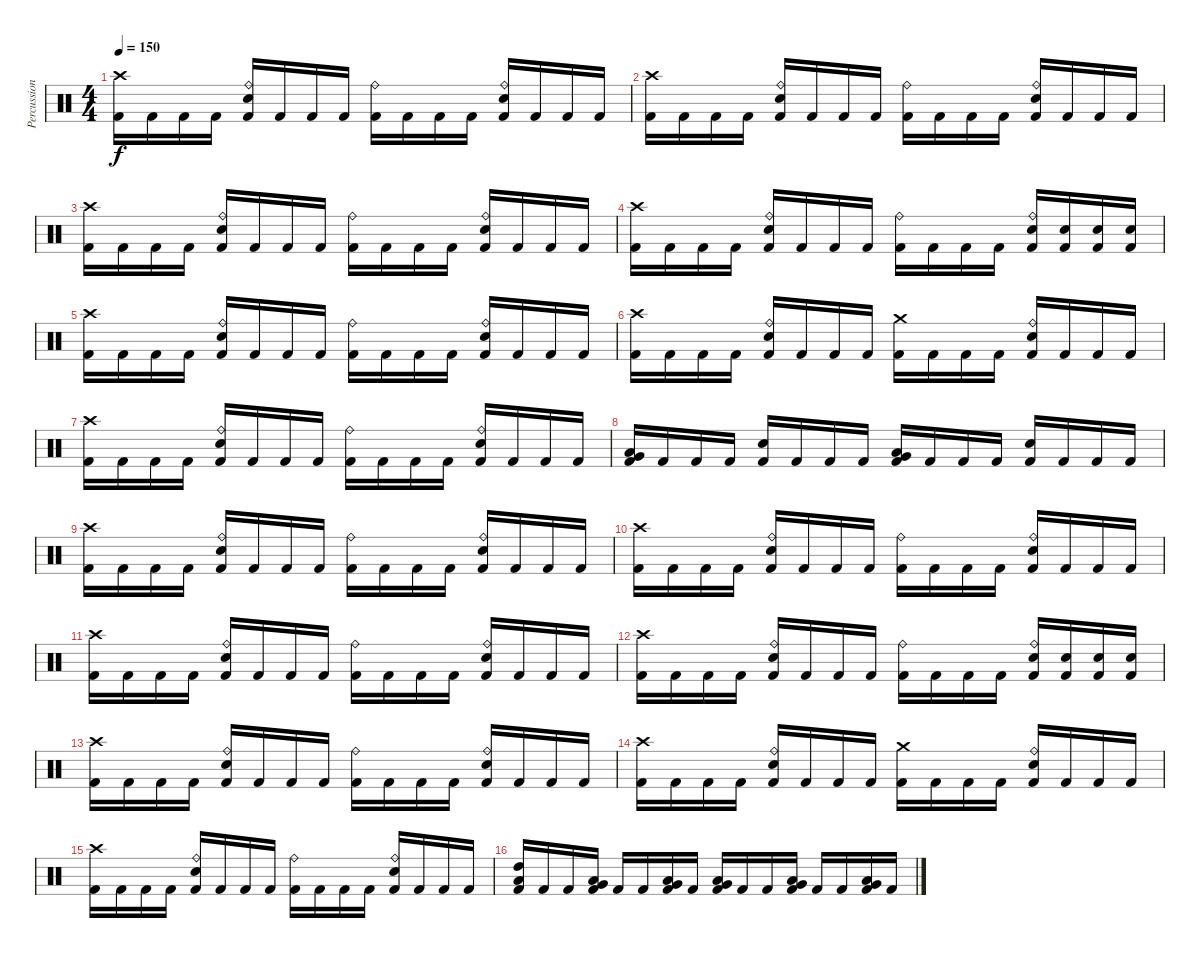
\track ("Percussion" "Percussion") {instrument percussion}
\staff {score}
\articulation defaults
\ts (4 4)
\tempo 150
\clef neutral
\ks c
("Crash high (hit)" "Kick (hit) 2").16{dy f} "Kick (hit) 2".16 "Kick (hit) 2".16 "Kick (hit) 2".16 ("Ride (bell)" "Snare (hit) 2" "Kick (hit) 2").16 "Kick (hit) 2".16 "Kick (hit) 2".16 "Kick (hit) 2".16 ("Ride (bell)" "Kick (hit) 2").16 "Kick (hit) 2".16 "Kick (hit) 2".16 "Kick (hit) 2".16 ("Ride (bell)" "Snare (hit) 2" "Kick (hit) 2").16 "Kick (hit) 2".16 "Kick (hit) 2".16 "Kick (hit) 2".16 |
("Crash high (hit)" "Kick (hit) 2").16 "Kick (hit) 2".16 "Kick (hit) 2".16 "Kick (hit) 2".16 ("Ride (bell)" "Snare (hit) 2" "Kick (hit) 2").16 "Kick (hit) 2".16 "Kick (hit) 2".16 "Kick (hit) 2".16 ("Ride (bell)" "Kick (hit) 2").16 "Kick (hit) 2".16 "Kick (hit) 2".16 "Kick (hit) 2".16 ("Ride (bell)" "Snare (hit) 2" "Kick (hit) 2").16 "Kick (hit) 2".16 "Kick (hit) 2".16 "Kick (hit) 2".16 |
("Crash high (hit)" "Kick (hit) 2").16 "Kick (hit) 2".16 "Kick (hit) 2".16 "Kick (hit) 2".16 ("Ride (bell)" "Snare (hit) 2" "Kick (hit) 2").16 "Kick (hit) 2".16 "Kick (hit) 2".16 "Kick (hit) 2".16 ("Ride (bell)" "Kick (hit) 2").16 "Kick (hit) 2".16 "Kick (hit) 2".16 "Kick (hit) 2".16 ("Ride (bell)" "Snare (hit) 2" "Kick (hit) 2").16 "Kick (hit) 2".16 "Kick (hit) 2".16 "Kick (hit) 2".16 |
("Crash high (hit)" "Kick (hit) 2").16 "Kick (hit) 2".16 "Kick (hit) 2".16 "Kick (hit) 2".16 ("Ride (bell)" "Snare (hit) 2" "Kick (hit) 2").16 "Kick (hit) 2".16 "Kick (hit) 2".16 "Kick (hit) 2".16 ("Ride (bell)" "Kick (hit) 2").16 "Kick (hit) 2".16 "Kick (hit) 2".16 "Kick (hit) 2".16 ("Ride (bell)" "Snare (hit) 2" "Kick (hit) 2").16 ("Snare (hit) 2" "Kick (hit) 2").16 ("Snare (hit) 2" "Kick (hit) 2").16 ("Snare (hit) 2" "Kick (hit) 2").16 |
("Crash high (hit)" "Kick (hit) 2").16 "Kick (hit) 2".16 "Kick (hit) 2".16 "Kick (hit) 2".16 ("Ride (bell)" "Snare (hit) 2" "Kick (hit) 2").16 "Kick (hit) 2".16 "Kick (hit) 2".16 "Kick (hit) 2".16 ("Ride (bell)" "Kick (hit) 2").16 "Kick (hit) 2".16 "Kick (hit) 2".16 "Kick (hit) 2".16 ("Ride (bell)" "Snare (hit) 2" "Kick (hit) 2").16 "Kick (hit) 2".16 "Kick (hit) 2".16 "Kick (hit) 2".16 |
("Crash high (hit)" "Kick (hit) 2").16 "Kick (hit) 2".16 "Kick (hit) 2".16 "Kick (hit) 2".16 ("Ride (bell)" "Snare (hit) 2" "Kick (hit) 2").16 "Kick (hit) 2".16 "Kick (hit) 2".16 "Kick (hit) 2".16 ("Crash medium (hit)" "Kick (hit) 2").16 "Kick (hit) 2".16 "Kick (hit) 2".16 "Kick (hit) 2".16 ("Ride (bell)" "Snare (hit) 2" "Kick (hit) 2").16 "Kick (hit) 2".16 "Kick (hit) 2".16 "Kick (hit) 2".16 |
("Crash high (hit)" "Kick (hit) 2").16 "Kick (hit) 2".16 "Kick (hit) 2".16 "Kick (hit) 2".16 ("Ride (bell)" "Snare (hit) 2" "Kick (hit) 2").16 "Kick (hit) 2".16 "Kick (hit) 2".16 "Kick (hit) 2".16 ("Ride (bell)" "Kick (hit) 2").16 "Kick (hit) 2".16 "Kick (hit) 2".16 "Kick (hit) 2".16 ("Ride (bell)" "Snare (hit) 2" "Kick (hit) 2").16 "Kick (hit) 2".16 "Kick (hit) 2".16 "Kick (hit) 2".16 |
("Low Tom (hit)" "Very Low Tom (hit)" "Kick (hit) 2").16 "Kick (hit) 2".16 "Kick (hit) 2".16 "Kick (hit) 2".16 ("Snare (hit) 2" "Kick (hit) 2").16 "Kick (hit) 2".16 "Kick (hit) 2".16 "Kick (hit) 2".16 ("Low Tom (hit)" "Very Low Tom (hit)" "Kick (hit) 2").16 "Kick (hit) 2".16 "Kick (hit) 2".16 "Kick (hit) 2".16 ("Snare (hit) 2" "Kick (hit) 2").16 "Kick (hit) 2".16 "Kick (hit) 2".16 "Kick (hit) 2".16 |
("Crash high (hit)" "Kick (hit) 2").16 "Kick (hit) 2".16 "Kick (hit) 2".16 "Kick (hit) 2".16 ("Ride (bell)" "Snare (hit) 2" "Kick (hit) 2").16 "Kick (hit) 2".16 "Kick (hit) 2".16 "Kick (hit) 2".16 ("Ride (bell)" "Kick (hit) 2").16 "Kick (hit) 2".16 "Kick (hit) 2".16 "Kick (hit) 2".16 ("Ride (bell)" "Snare (hit) 2" "Kick (hit) 2").16 "Kick (hit) 2".16 "Kick (hit) 2".16 "Kick (hit) 2".16 |
("Crash high (hit)" "Kick (hit) 2").16 "Kick (hit) 2".16 "Kick (hit) 2".16 "Kick (hit) 2".16 ("Ride (bell)" "Snare (hit) 2" "Kick (hit) 2").16 "Kick (hit) 2".16 "Kick (hit) 2".16 "Kick (hit) 2".16 ("Ride (bell)" "Kick (hit) 2").16 "Kick (hit) 2".16 "Kick (hit) 2".16 "Kick (hit) 2".16 ("Ride (bell)" "Snare (hit) 2" "Kick (hit) 2").16 "Kick (hit) 2".16 "Kick (hit) 2".16 "Kick (hit) 2".16 |
("Crash high (hit)" "Kick (hit) 2").16 "Kick (hit) 2".16 "Kick (hit) 2".16 "Kick (hit) 2".16 ("Ride (bell)" "Snare (hit) 2" "Kick (hit) 2").16 "Kick (hit) 2".16 "Kick (hit) 2".16 "Kick (hit) 2".16 ("Ride (bell)" "Kick (hit) 2").16 "Kick (hit) 2".16 "Kick (hit) 2".16 "Kick (hit) 2".16 ("Ride (bell)" "Snare (hit) 2" "Kick (hit) 2").16 "Kick (hit) 2".16 "Kick (hit) 2".16 "Kick (hit) 2".16 |
("Crash high (hit)" "Kick (hit) 2").16 "Kick (hit) 2".16 "Kick (hit) 2".16 "Kick (hit) 2".16 ("Ride (bell)" "Snare (hit) 2" "Kick (hit) 2").16 "Kick (hit) 2".16 "Kick (hit) 2".16 "Kick (hit) 2".16 ("Ride (bell)" "Kick (hit) 2").16 "Kick (hit) 2".16 "Kick (hit) 2".16 "Kick (hit) 2".16 ("Ride (bell)" "Snare (hit) 2" "Kick (hit) 2").16 ("Snare (hit) 2" "Kick (hit) 2").16 ("Snare (hit) 2" "Kick (hit) 2").16 ("Snare (hit) 2" "Kick (hit) 2").16 |
("Crash high (hit)" "Kick (hit) 2").16 "Kick (hit) 2".16 "Kick (hit) 2".16 "Kick (hit) 2".16 ("Ride (bell)" "Snare (hit) 2" "Kick (hit) 2").16 "Kick (hit) 2".16 "Kick (hit) 2".16 "Kick (hit) 2".16 ("Ride (bell)" "Kick (hit) 2").16 "Kick (hit) 2".16 "Kick (hit) 2".16 "Kick (hit) 2".16 ("Ride (bell)" "Snare (hit) 2" "Kick (hit) 2").16 "Kick (hit) 2".16 "Kick (hit) 2".16 "Kick (hit) 2".16 |
("Crash high (hit)" "Kick (hit) 2").16 "Kick (hit) 2".16 "Kick (hit) 2".16 "Kick (hit) 2".16 ("Ride (bell)" "Snare (hit) 2" "Kick (hit) 2").16 "Kick (hit) 2".16 "Kick (hit) 2".16 "Kick (hit) 2".16 ("Crash medium (hit)" "Kick (hit) 2").16 "Kick (hit) 2".16 "Kick (hit) 2".16 "Kick (hit) 2".16 ("Ride (bell)" "Snare (hit) 2" "Kick (hit) 2").16 "Kick (hit) 2".16 "Kick (hit) 2".16 "Kick (hit) 2".16 |
("Crash high (hit)" "Kick (hit) 2").16 "Kick (hit) 2".16 "Kick (hit) 2".16 "Kick (hit) 2".16 ("Ride (bell)" "Snare (hit) 2" "Kick (hit) 2").16 "Kick (hit) 2".16 "Kick (hit) 2".16 "Kick (hit) 2".16 ("Ride (bell)" "Kick (hit) 2").16 "Kick (hit) 2".16 "Kick (hit) 2".16 "Kick (hit) 2".16 ("Ride (bell)" "Snare (hit) 2" "Kick (hit) 2").16 "Kick (hit) 2".16 "Kick (hit) 2".16 "Kick (hit) 2".16 |
("High Tom (hit)" "Low Tom (hit)" "Kick (hit) 2").16 "Kick (hit) 2".16 "Kick (hit) 2".16 ("Low Tom (hit)" "Very Low Tom (hit)" "Kick (hit) 2").16 "Kick (hit) 2".16 "Kick (hit) 2".16 ("Very Low Tom (hit)" "Low Floor Tom (hit)" "Kick (hit) 2").16 "Kick (hit) 2".16 ("Low Tom (hit)" "Very Low Tom (hit)" "Kick (hit) 2").16 "Kick (hit) 2".16 "Kick (hit) 2".16 ("Very Low Tom (hit)" "Low Floor Tom (hit)" "Kick (hit) 2").16 "Kick (hit) 2".16 "Kick (hit) 2".16 ("Very Low Tom (hit)" "Low Floor Tom (hit)" "Kick (hit) 2").16 "Kick (hit) 2".16
